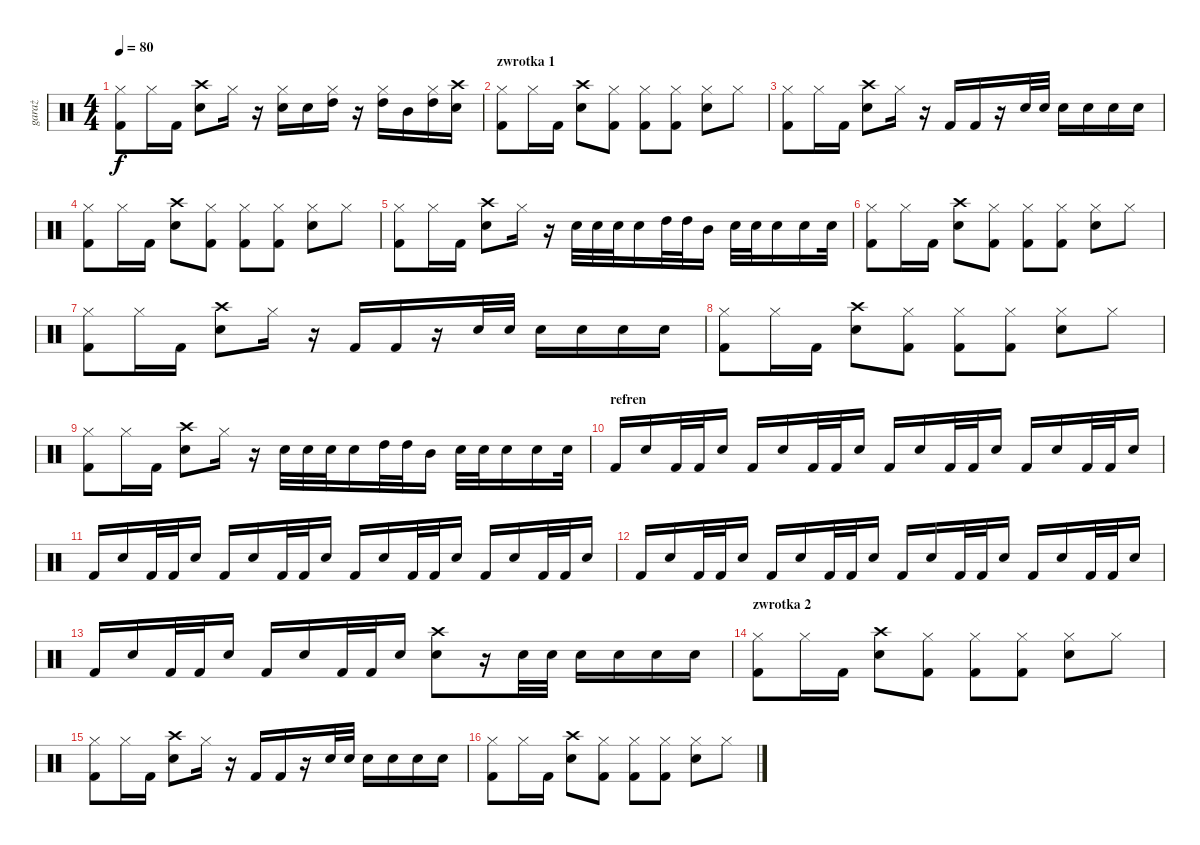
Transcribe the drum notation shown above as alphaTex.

\track ("garaż" "garaż") {instrument percussion}
\staff {score}
\articulation defaults
\ts (4 4)
\tempo 80
\clef neutral
\ks c
("Hi-Hat (closed)" "Kick (hit) 2").8{dy f} "Hi-Hat (closed)".16 "Kick (hit) 2".16 ("Crash high (hit)" "Snare (hit) 2").8 "Hi-Hat (closed)".16 r.16 ("Hi-Hat (closed)" "Snare (hit) 2").16 "Snare (hit) 2".16 ("Hi-Hat (closed)" "High Tom (hit)").16 r.16 ("Hi-Hat (closed)" "High Tom (hit)").16 "Mid Tom (hit)".16 ("Hi-Hat (closed)" "High Tom (hit)").16 ("Crash high (hit)" "Snare (hit) 2").16 |
\section ("" "zwrotka 1")
("Hi-Hat (closed)" "Kick (hit) 2").8 "Hi-Hat (closed)".16 "Kick (hit) 2".16 ("Crash high (hit)" "Snare (hit) 2").8 ("Hi-Hat (closed)" "Kick (hit) 2").8 ("Hi-Hat (closed)" "Kick (hit) 2").8 ("Hi-Hat (closed)" "Kick (hit) 2").8 ("Hi-Hat (closed)" "Snare (hit) 2").8 "Hi-Hat (closed)".8 |
("Hi-Hat (closed)" "Kick (hit) 2").8 "Hi-Hat (closed)".16 "Kick (hit) 2".16 ("Crash high (hit)" "Snare (hit) 2").8 "Hi-Hat (closed)".16 r.16 "Kick (hit) 2".16 "Kick (hit) 2".16 r.16 "Snare (hit) 2".32 "Snare (hit) 2".32 "Snare (hit) 2".16 "Snare (hit) 2".16 "Snare (hit) 2".16 "Snare (hit) 2".16 |
("Hi-Hat (closed)" "Kick (hit) 2").8 "Hi-Hat (closed)".16 "Kick (hit) 2".16 ("Crash high (hit)" "Snare (hit) 2").8 ("Hi-Hat (closed)" "Kick (hit) 2").8 ("Hi-Hat (closed)" "Kick (hit) 2").8 ("Hi-Hat (closed)" "Kick (hit) 2").8 ("Hi-Hat (closed)" "Snare (hit) 2").8 "Hi-Hat (closed)".8 |
("Hi-Hat (closed)" "Kick (hit) 2").8 "Hi-Hat (closed)".16 "Kick (hit) 2".16 ("Crash high (hit)" "Snare (hit) 2").8 "Hi-Hat (closed)".16 r.16 "Snare (hit) 2".32 "Snare (hit) 2".32 "Snare (hit) 2".32 "Snare (hit) 2".16 "High Tom (hit)".32 "High Tom (hit)".32 "Mid Tom (hit)".16 "Snare (hit) 2".32 "Snare (hit) 2".32 "Snare (hit) 2".16 "Snare (hit) 2".16 "Snare (hit) 2".32 |
("Hi-Hat (closed)" "Kick (hit) 2").8 "Hi-Hat (closed)".16 "Kick (hit) 2".16 ("Crash high (hit)" "Snare (hit) 2").8 ("Hi-Hat (closed)" "Kick (hit) 2").8 ("Hi-Hat (closed)" "Kick (hit) 2").8 ("Hi-Hat (closed)" "Kick (hit) 2").8 ("Hi-Hat (closed)" "Snare (hit) 2").8 "Hi-Hat (closed)".8 |
("Hi-Hat (closed)" "Kick (hit) 2").8 "Hi-Hat (closed)".16 "Kick (hit) 2".16 ("Crash high (hit)" "Snare (hit) 2").8 "Hi-Hat (closed)".16 r.16 "Kick (hit) 2".16 "Kick (hit) 2".16 r.16 "Snare (hit) 2".32 "Snare (hit) 2".32 "Snare (hit) 2".16 "Snare (hit) 2".16 "Snare (hit) 2".16 "Snare (hit) 2".16 |
("Hi-Hat (closed)" "Kick (hit) 2").8 "Hi-Hat (closed)".16 "Kick (hit) 2".16 ("Crash high (hit)" "Snare (hit) 2").8 ("Hi-Hat (closed)" "Kick (hit) 2").8 ("Hi-Hat (closed)" "Kick (hit) 2").8 ("Hi-Hat (closed)" "Kick (hit) 2").8 ("Hi-Hat (closed)" "Snare (hit) 2").8 "Hi-Hat (closed)".8 |
("Hi-Hat (closed)" "Kick (hit) 2").8 "Hi-Hat (closed)".16 "Kick (hit) 2".16 ("Crash high (hit)" "Snare (hit) 2").8 "Hi-Hat (closed)".16 r.16 "Snare (hit) 2".32 "Snare (hit) 2".32 "Snare (hit) 2".32 "Snare (hit) 2".16 "High Tom (hit)".32 "High Tom (hit)".32 "Mid Tom (hit)".16 "Snare (hit) 2".32 "Snare (hit) 2".32 "Snare (hit) 2".16 "Snare (hit) 2".16 "Snare (hit) 2".32 |
\section ("" "refren")
"Kick (hit) 2".16 "Snare (hit) 2".16 "Kick (hit) 2".32 "Kick (hit) 2".32 "Snare (hit) 2".16 "Kick (hit) 2".16 "Snare (hit) 2".16 "Kick (hit) 2".32 "Kick (hit) 2".32 "Snare (hit) 2".16 "Kick (hit) 2".16 "Snare (hit) 2".16 "Kick (hit) 2".32 "Kick (hit) 2".32 "Snare (hit) 2".16 "Kick (hit) 2".16 "Snare (hit) 2".16 "Kick (hit) 2".32 "Kick (hit) 2".32 "Snare (hit) 2".16 |
"Kick (hit) 2".16 "Snare (hit) 2".16 "Kick (hit) 2".32 "Kick (hit) 2".32 "Snare (hit) 2".16 "Kick (hit) 2".16 "Snare (hit) 2".16 "Kick (hit) 2".32 "Kick (hit) 2".32 "Snare (hit) 2".16 "Kick (hit) 2".16 "Snare (hit) 2".16 "Kick (hit) 2".32 "Kick (hit) 2".32 "Snare (hit) 2".16 "Kick (hit) 2".16 "Snare (hit) 2".16 "Kick (hit) 2".32 "Kick (hit) 2".32 "Snare (hit) 2".16 |
"Kick (hit) 2".16 "Snare (hit) 2".16 "Kick (hit) 2".32 "Kick (hit) 2".32 "Snare (hit) 2".16 "Kick (hit) 2".16 "Snare (hit) 2".16 "Kick (hit) 2".32 "Kick (hit) 2".32 "Snare (hit) 2".16 "Kick (hit) 2".16 "Snare (hit) 2".16 "Kick (hit) 2".32 "Kick (hit) 2".32 "Snare (hit) 2".16 "Kick (hit) 2".16 "Snare (hit) 2".16 "Kick (hit) 2".32 "Kick (hit) 2".32 "Snare (hit) 2".16 |
"Kick (hit) 2".16 "Snare (hit) 2".16 "Kick (hit) 2".32 "Kick (hit) 2".32 "Snare (hit) 2".16 "Kick (hit) 2".16 "Snare (hit) 2".16 "Kick (hit) 2".32 "Kick (hit) 2".32 "Snare (hit) 2".16 ("Crash high (hit)" "Snare (hit) 2").8 r.16 "Snare (hit) 2".32 "Snare (hit) 2".32 "Snare (hit) 2".16 "Snare (hit) 2".16 "Snare (hit) 2".16 "Snare (hit) 2".16 |
\section ("" "zwrotka 2")
("Hi-Hat (closed)" "Kick (hit) 2").8 "Hi-Hat (closed)".16 "Kick (hit) 2".16 ("Crash high (hit)" "Snare (hit) 2").8 ("Hi-Hat (closed)" "Kick (hit) 2").8 ("Hi-Hat (closed)" "Kick (hit) 2").8 ("Hi-Hat (closed)" "Kick (hit) 2").8 ("Hi-Hat (closed)" "Snare (hit) 2").8 "Hi-Hat (closed)".8 |
("Hi-Hat (closed)" "Kick (hit) 2").8 "Hi-Hat (closed)".16 "Kick (hit) 2".16 ("Crash high (hit)" "Snare (hit) 2").8 "Hi-Hat (closed)".16 r.16 "Kick (hit) 2".16 "Kick (hit) 2".16 r.16 "Snare (hit) 2".32 "Snare (hit) 2".32 "Snare (hit) 2".16 "Snare (hit) 2".16 "Snare (hit) 2".16 "Snare (hit) 2".16 |
("Hi-Hat (closed)" "Kick (hit) 2").8 "Hi-Hat (closed)".16 "Kick (hit) 2".16 ("Crash high (hit)" "Snare (hit) 2").8 ("Hi-Hat (closed)" "Kick (hit) 2").8 ("Hi-Hat (closed)" "Kick (hit) 2").8 ("Hi-Hat (closed)" "Kick (hit) 2").8 ("Hi-Hat (closed)" "Snare (hit) 2").8 "Hi-Hat (closed)".8
